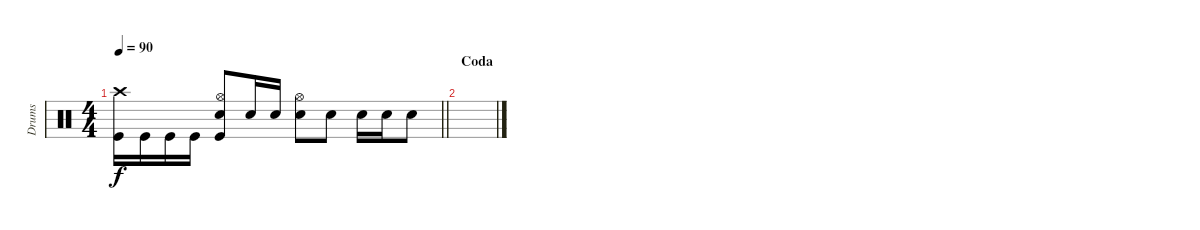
\track ("Drums " "Drums ") {instrument percussion}
\staff {score}
\articulation defaults
\ts (4 4)
\tempo 90
\clef neutral
\barLineRight lightlight
\ks c
("Crash high (hit)" "Kick (hit)").16{dy f} "Kick (hit)".16 "Kick (hit)".16 "Kick (hit)".16 ("Hi-Hat (open)" "Electric Snare (hit)" "Kick (hit)").8 "Electric Snare (hit)".16 "Electric Snare (hit)".16 ("Hi-Hat (open)" "Electric Snare (hit)").8 "Electric Snare (hit)".8 "Electric Snare (hit)".16 "Electric Snare (hit)".16 "Electric Snare (hit)".8 |
\section ("" "Coda")
